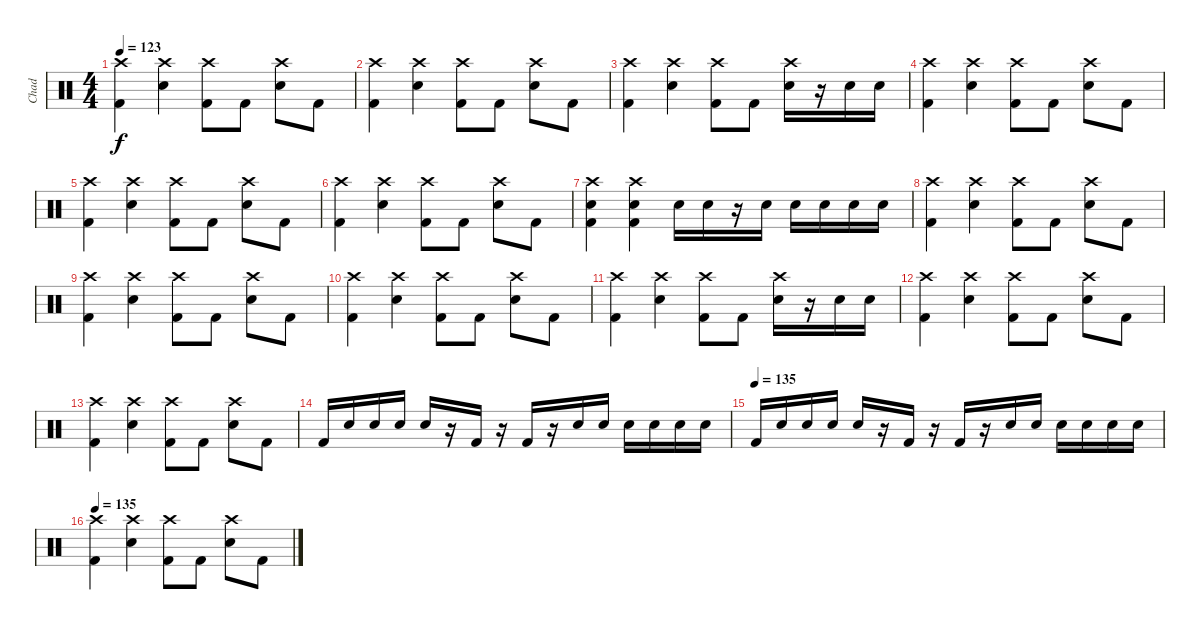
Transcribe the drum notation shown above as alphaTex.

\track ("Chad" "Chad") {instrument percussion}
\staff {score}
\articulation defaults
\ts (4 4)
\tempo 123
\clef neutral
\ks c
("Crash high (hit)" "Kick (hit) 2").4{dy f} ("Crash high (hit)" "Electric Snare (hit)").4 ("Crash high (hit)" "Kick (hit) 2").8 "Kick (hit) 2".8 ("Crash high (hit)" "Electric Snare (hit)").8 "Kick (hit) 2".8 |
("Crash high (hit)" "Kick (hit) 2").4 ("Crash high (hit)" "Electric Snare (hit)").4 ("Crash high (hit)" "Kick (hit) 2").8 "Kick (hit) 2".8 ("Crash high (hit)" "Electric Snare (hit)").8 "Kick (hit) 2".8 |
("Crash high (hit)" "Kick (hit) 2").4 ("Crash high (hit)" "Electric Snare (hit)").4 ("Crash high (hit)" "Kick (hit) 2").8 "Kick (hit) 2".8 ("Crash high (hit)" "Electric Snare (hit)").16 r.16 "Electric Snare (hit)".16 "Electric Snare (hit)".16 |
("Crash high (hit)" "Kick (hit) 2").4 ("Crash high (hit)" "Electric Snare (hit)").4 ("Crash high (hit)" "Kick (hit) 2").8 "Kick (hit) 2".8 ("Crash high (hit)" "Electric Snare (hit)").8 "Kick (hit) 2".8 |
("Crash high (hit)" "Kick (hit) 2").4 ("Crash high (hit)" "Electric Snare (hit)").4 ("Crash high (hit)" "Kick (hit) 2").8 "Kick (hit) 2".8 ("Crash high (hit)" "Electric Snare (hit)").8 "Kick (hit) 2".8 |
("Crash high (hit)" "Kick (hit) 2").4 ("Crash high (hit)" "Electric Snare (hit)").4 ("Crash high (hit)" "Kick (hit) 2").8 "Kick (hit) 2".8 ("Crash high (hit)" "Electric Snare (hit)").8 "Kick (hit) 2".8 |
("Crash high (hit)" "Electric Snare (hit)" "Kick (hit) 2").4 ("Crash high (hit)" "Electric Snare (hit)" "Kick (hit) 2").4 "Electric Snare (hit)".16 "Electric Snare (hit)".16 r.16 "Electric Snare (hit)".16 "Electric Snare (hit)".16 "Electric Snare (hit)".16 "Electric Snare (hit)".16 "Electric Snare (hit)".16 |
("Crash high (hit)" "Kick (hit) 2").4 ("Crash high (hit)" "Electric Snare (hit)").4 ("Crash high (hit)" "Kick (hit) 2").8 "Kick (hit) 2".8 ("Crash high (hit)" "Electric Snare (hit)").8 "Kick (hit) 2".8 |
("Crash high (hit)" "Kick (hit) 2").4 ("Crash high (hit)" "Electric Snare (hit)").4 ("Crash high (hit)" "Kick (hit) 2").8 "Kick (hit) 2".8 ("Crash high (hit)" "Electric Snare (hit)").8 "Kick (hit) 2".8 |
("Crash high (hit)" "Kick (hit) 2").4 ("Crash high (hit)" "Electric Snare (hit)").4 ("Crash high (hit)" "Kick (hit) 2").8 "Kick (hit) 2".8 ("Crash high (hit)" "Electric Snare (hit)").8 "Kick (hit) 2".8 |
("Crash high (hit)" "Kick (hit) 2").4 ("Crash high (hit)" "Electric Snare (hit)").4 ("Crash high (hit)" "Kick (hit) 2").8 "Kick (hit) 2".8 ("Crash high (hit)" "Electric Snare (hit)").16 r.16 "Electric Snare (hit)".16 "Electric Snare (hit)".16 |
("Crash high (hit)" "Kick (hit) 2").4 ("Crash high (hit)" "Electric Snare (hit)").4 ("Crash high (hit)" "Kick (hit) 2").8 "Kick (hit) 2".8 ("Crash high (hit)" "Electric Snare (hit)").8 "Kick (hit) 2".8 |
("Crash high (hit)" "Kick (hit) 2").4 ("Crash high (hit)" "Electric Snare (hit)").4 ("Crash high (hit)" "Kick (hit) 2").8 "Kick (hit) 2".8 ("Crash high (hit)" "Electric Snare (hit)").8 "Kick (hit) 2".8 |
"Kick (hit) 2".16 "Electric Snare (hit)".16 "Electric Snare (hit)".16 "Electric Snare (hit)".16 "Electric Snare (hit)".16 r.16 "Kick (hit) 2".16 r.16 "Kick (hit) 2".16 r.16 "Electric Snare (hit)".16 "Electric Snare (hit)".16 "Electric Snare (hit)".16 "Electric Snare (hit)".16 "Electric Snare (hit)".16 "Electric Snare (hit)".16 |
\tempo (135)
"Kick (hit) 2".16 "Electric Snare (hit)".16 "Electric Snare (hit)".16 "Electric Snare (hit)".16 "Electric Snare (hit)".16 r.16 "Kick (hit) 2".16 r.16 "Kick (hit) 2".16 r.16 "Electric Snare (hit)".16 "Electric Snare (hit)".16 "Electric Snare (hit)".16 "Electric Snare (hit)".16 "Electric Snare (hit)".16 "Electric Snare (hit)".16 |
\tempo 135
("Crash high (hit)" "Kick (hit) 2").4 ("Crash high (hit)" "Electric Snare (hit)").4 ("Crash high (hit)" "Kick (hit) 2").8 "Kick (hit) 2".8 ("Crash high (hit)" "Electric Snare (hit)").8 "Kick (hit) 2".8
